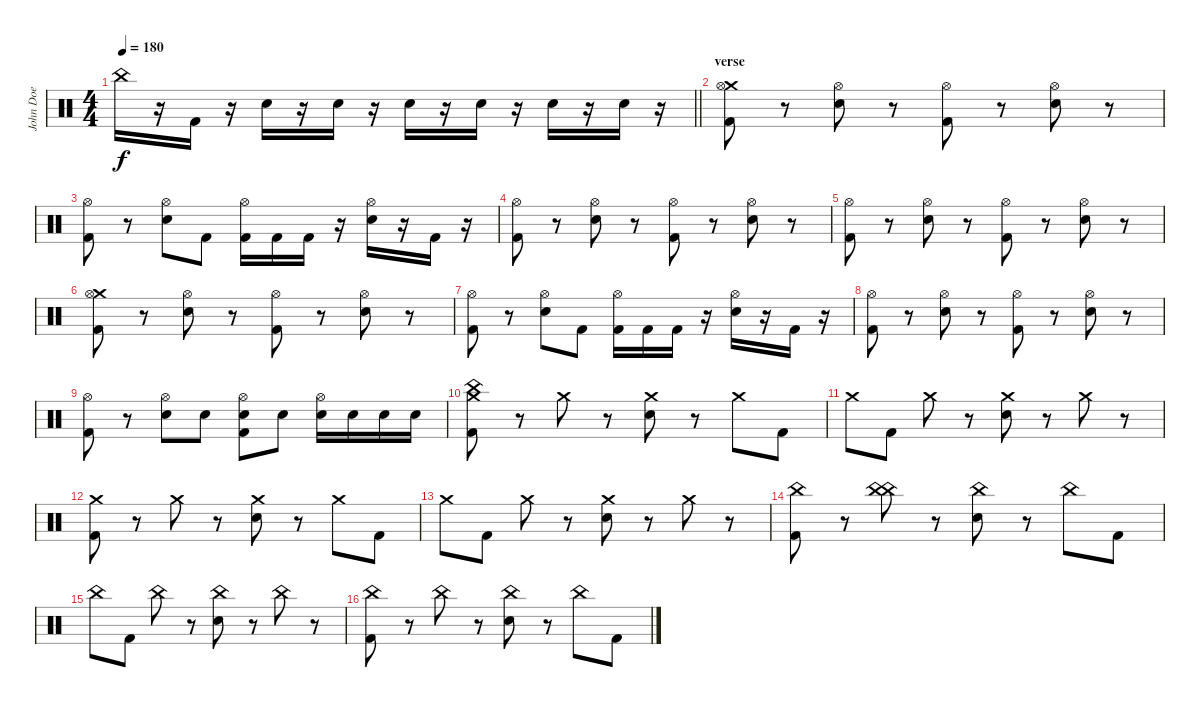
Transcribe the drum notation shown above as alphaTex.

\track ("John Doe" "John Doe") {instrument percussion}
\staff {score}
\articulation defaults
\ts (4 4)
\tempo 180
\clef neutral
\barLineRight lightlight
\ks c "China (hit)".16{dy f}
r.16 "Kick (hit) 2".16 r.16 "Electric Snare (hit)".16 r.16 "Electric Snare (hit)".16 r.16 "Electric Snare (hit)".16 r.16 "Electric Snare (hit)".16 r.16 "Electric Snare (hit)".16 r.16 "Electric Snare (hit)".16 r.16 |
\section ("" "verse")
("Crash medium (hit)" "Hi-Hat (open)" "Kick (hit) 2").8 r.8 ("Hi-Hat (open)" "Electric Snare (hit)").8 r.8 ("Hi-Hat (open)" "Kick (hit) 2").8 r.8 ("Hi-Hat (open)" "Electric Snare (hit)").8 r.8 |
("Hi-Hat (open)" "Kick (hit) 2").8 r.8 ("Hi-Hat (open)" "Electric Snare (hit)").8 "Kick (hit) 2".8 ("Hi-Hat (open)" "Kick (hit) 2").16 "Kick (hit) 2".16 "Kick (hit) 2".16 r.16 ("Hi-Hat (open)" "Electric Snare (hit)").16 r.16 "Kick (hit) 2".16 r.16 |
("Hi-Hat (open)" "Kick (hit) 2").8 r.8 ("Hi-Hat (open)" "Electric Snare (hit)").8 r.8 ("Hi-Hat (open)" "Kick (hit) 2").8 r.8 ("Hi-Hat (open)" "Electric Snare (hit)").8 r.8 |
("Hi-Hat (open)" "Kick (hit) 2").8 r.8 ("Hi-Hat (open)" "Electric Snare (hit)").8 r.8 ("Hi-Hat (open)" "Kick (hit) 2").8 r.8 ("Hi-Hat (open)" "Electric Snare (hit)").8 r.8 |
("Crash medium (hit)" "Hi-Hat (open)" "Kick (hit) 2").8 r.8 ("Hi-Hat (open)" "Electric Snare (hit)").8 r.8 ("Hi-Hat (open)" "Kick (hit) 2").8 r.8 ("Hi-Hat (open)" "Electric Snare (hit)").8 r.8 |
("Hi-Hat (open)" "Kick (hit) 2").8 r.8 ("Hi-Hat (open)" "Electric Snare (hit)").8 "Kick (hit) 2".8 ("Hi-Hat (open)" "Kick (hit) 2").16 "Kick (hit) 2".16 "Kick (hit) 2".16 r.16 ("Hi-Hat (open)" "Electric Snare (hit)").16 r.16 "Kick (hit) 2".16 r.16 |
("Hi-Hat (open)" "Kick (hit) 2").8 r.8 ("Hi-Hat (open)" "Electric Snare (hit)").8 r.8 ("Hi-Hat (open)" "Kick (hit) 2").8 r.8 ("Hi-Hat (open)" "Electric Snare (hit)").8 r.8 |
("Hi-Hat (open)" "Kick (hit) 2").8 r.8 ("Hi-Hat (open)" "Electric Snare (hit)").8 "Electric Snare (hit)".8 ("Hi-Hat (open)" "Electric Snare (hit)" "Kick (hit) 2").8 "Electric Snare (hit)".8 ("Hi-Hat (open)" "Electric Snare (hit)").16 "Electric Snare (hit)".16 "Electric Snare (hit)".16 "Electric Snare (hit)".16 |
("China (hit)" "Crash medium (hit)" "Kick (hit) 2").8 r.8 "Crash medium (hit)".8 r.8 ("Crash medium (hit)" "Electric Snare (hit)").8 r.8 "Crash medium (hit)".8 "Kick (hit) 2".8 |
"Crash medium (hit)".8 "Kick (hit) 2".8 "Crash medium (hit)".8 r.8 ("Crash medium (hit)" "Electric Snare (hit)").8 r.8 "Crash medium (hit)".8 r.8 |
("Crash medium (hit)" "Kick (hit) 2").8 r.8 "Crash medium (hit)".8 r.8 ("Crash medium (hit)" "Electric Snare (hit)").8 r.8 "Crash medium (hit)".8 "Kick (hit) 2".8 |
"Crash medium (hit)".8 "Kick (hit) 2".8 "Crash medium (hit)".8 r.8 ("Crash medium (hit)" "Electric Snare (hit)").8 r.8 "Crash medium (hit)".8 r.8 |
("China (hit)" "Kick (hit) 2").8 r.8 ("China (hit)" "China (hit)").8 r.8 ("China (hit)" "Electric Snare (hit)").8 r.8 "China (hit)".8 "Kick (hit) 2".8 |
"China (hit)".8 "Kick (hit) 2".8 "China (hit)".8 r.8 ("China (hit)" "Electric Snare (hit)").8 r.8 "China (hit)".8 r.8 |
("China (hit)" "Kick (hit) 2").8 r.8 "China (hit)".8 r.8 ("China (hit)" "Electric Snare (hit)").8 r.8 "China (hit)".8 "Kick (hit) 2".8
